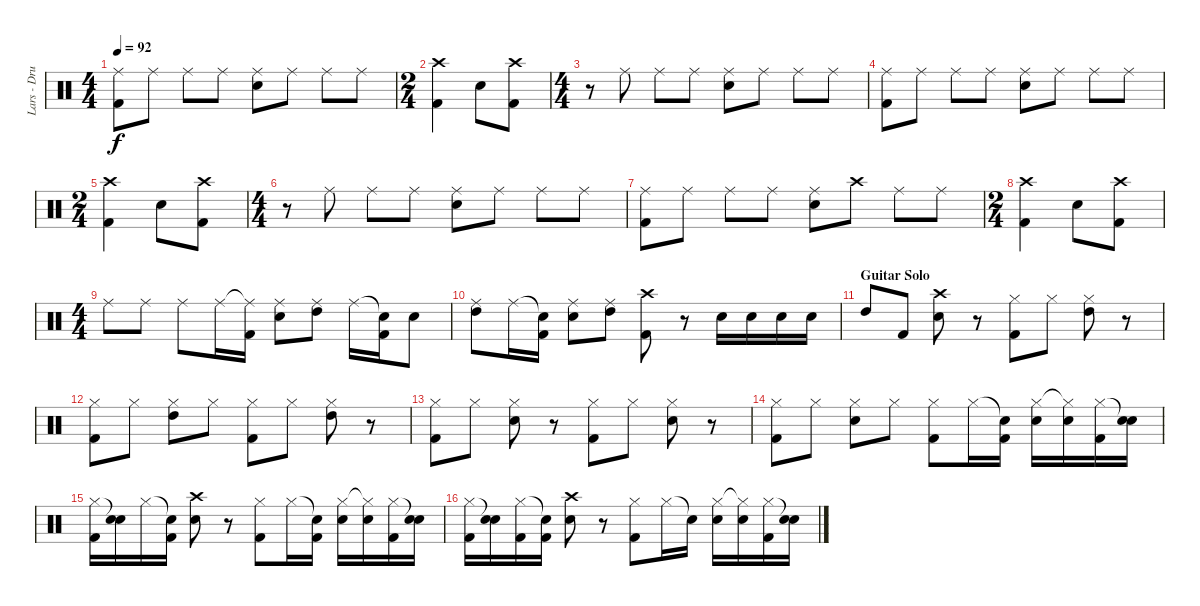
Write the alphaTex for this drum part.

\track ("Lars - Drums" "Lars - Dru") {instrument percussion}
\staff {score}
\articulation defaults
\ts (4 4)
\tempo 92
\clef neutral
\ks c
("Ride (middle)" "Kick (hit) 2").8{dy f} "Ride (middle)".8 "Ride (middle)".8 "Ride (middle)".8 ("Ride (middle)" "Electric Snare (hit)").8 "Ride (middle)".8 "Ride (middle)".8 "Ride (middle)".8 |
\ts (2 4)
("Crash high (hit)" "Kick (hit) 2").4 "Electric Snare (hit)".8 ("Crash high (hit)" "Kick (hit) 2").8 |
\ts (4 4)
r.8 "Ride (middle)".8 "Ride (middle)".8 "Ride (middle)".8 ("Ride (middle)" "Electric Snare (hit)").8 "Ride (middle)".8 "Ride (middle)".8 "Ride (middle)".8 |
("Ride (middle)" "Kick (hit) 2").8 "Ride (middle)".8 "Ride (middle)".8 "Ride (middle)".8 ("Ride (middle)" "Electric Snare (hit)").8 "Ride (middle)".8 "Ride (middle)".8 "Ride (middle)".8 |
\ts (2 4)
("Crash high (hit)" "Kick (hit) 2").4 "Electric Snare (hit)".8 ("Crash high (hit)" "Kick (hit) 2").8 |
\ts (4 4)
r.8 "Ride (middle)".8 "Ride (middle)".8 "Ride (middle)".8 ("Ride (middle)" "Electric Snare (hit)").8 "Ride (middle)".8 "Ride (middle)".8 "Ride (middle)".8 |
("Ride (middle)" "Kick (hit) 2").8 "Ride (middle)".8 "Ride (middle)".8 "Ride (middle)".8 ("Ride (middle)" "Electric Snare (hit)").8 "Crash high (hit)".8 "Ride (middle)".8 "Ride (middle)".8 |
\ts (2 4)
("Crash high (hit)" "Kick (hit) 2").4 "Electric Snare (hit)".8 ("Crash high (hit)" "Kick (hit) 2").8 |
\ts (4 4)
"Ride (middle)".8 "Ride (middle)".8 "Ride (middle)".8 "Ride (middle)".16 ("Ride (middle)"{t} "Kick (hit) 2").16 ("Ride (middle)" "Electric Snare (hit)").8 ("Ride (middle)" "High Tom (hit)").8 "Ride (middle)".16 ("Snare (hit)"{t} "Kick (hit) 2").16 "Electric Snare (hit)".8 |
("Ride (middle)" "High Tom (hit)").8 "Ride (middle)".16 ("Snare (hit)"{t} "Kick (hit) 2").16 ("Ride (middle)" "Electric Snare (hit)").8 ("Ride (middle)" "High Tom (hit)").8 ("Crash high (hit)" "Kick (hit) 2").8 r.8 "Electric Snare (hit)".16 "Electric Snare (hit)".16 "Electric Snare (hit)".16 "Electric Snare (hit)".16 |
\section ("" "Guitar Solo")
"High Tom (hit)".8 "Kick (hit) 2".8 ("Crash high (hit)" "Electric Snare (hit)").8 r.8 ("Hi-Hat (closed)" "Kick (hit) 2").8 "Hi-Hat (closed)".8 ("Hi-Hat (closed)" "High Tom (hit)").8 r.8 |
("Hi-Hat (closed)" "Kick (hit) 2").8 "Hi-Hat (closed)".8 ("Hi-Hat (closed)" "High Tom (hit)").8 "Hi-Hat (closed)".8 ("Hi-Hat (closed)" "Kick (hit) 2").8 "Hi-Hat (closed)".8 ("Hi-Hat (closed)" "High Tom (hit)").8 r.8 |
("Hi-Hat (closed)" "Kick (hit) 2").8 "Hi-Hat (closed)".8 ("Hi-Hat (closed)" "Electric Snare (hit)").8 r.8 ("Hi-Hat (closed)" "Kick (hit) 2").8 "Hi-Hat (closed)".8 ("Hi-Hat (closed)" "Electric Snare (hit)").8 r.8 |
("Hi-Hat (closed)" "Kick (hit) 2").8 "Hi-Hat (closed)".8 ("Hi-Hat (closed)" "Electric Snare (hit)").8 "Hi-Hat (closed)".8 ("Hi-Hat (closed)" "Kick (hit) 2").8 "Hi-Hat (closed)".16 ("Snare (hit)"{t} "Kick (hit) 2").16 ("Hi-Hat (closed)" "Electric Snare (hit)").16 ("Hi-Hat (closed)"{t} "Electric Snare (hit)").16 ("Hi-Hat (closed)" "Kick (hit) 2").16 ("Snare (hit)"{t} "Electric Snare (hit)").16 |
("Hi-Hat (closed)" "Kick (hit) 2").16 ("Snare (hit)"{t} "Electric Snare (hit)").16 "Hi-Hat (closed)".16 ("Snare (hit)"{t} "Kick (hit) 2").16 ("Crash high (hit)" "Electric Snare (hit)").8 r.8 ("Hi-Hat (closed)" "Kick (hit) 2").8 "Hi-Hat (closed)".16 ("Snare (hit)"{t} "Kick (hit) 2").16 ("Hi-Hat (closed)" "Electric Snare (hit)").16 ("Hi-Hat (closed)"{t} "Electric Snare (hit)").16 ("Hi-Hat (closed)" "Kick (hit) 2").16 ("Snare (hit)"{t} "Electric Snare (hit)").16 |
("Hi-Hat (closed)" "Kick (hit) 2").16 ("Snare (hit)"{t} "Electric Snare (hit)").16 ("Hi-Hat (closed)" "Kick (hit) 2").16 ("Snare (hit)"{t} "Kick (hit) 2").16 ("Crash high (hit)" "Electric Snare (hit)").8 r.8 ("Hi-Hat (closed)" "Kick (hit) 2").8 "Hi-Hat (closed)".16 "Snare (hit)"{t}.16 ("Hi-Hat (closed)" "Electric Snare (hit)").16 ("Hi-Hat (closed)"{t} "Electric Snare (hit)").16 ("Hi-Hat (closed)" "Kick (hit) 2").16 ("Snare (hit)"{t} "Electric Snare (hit)").16
